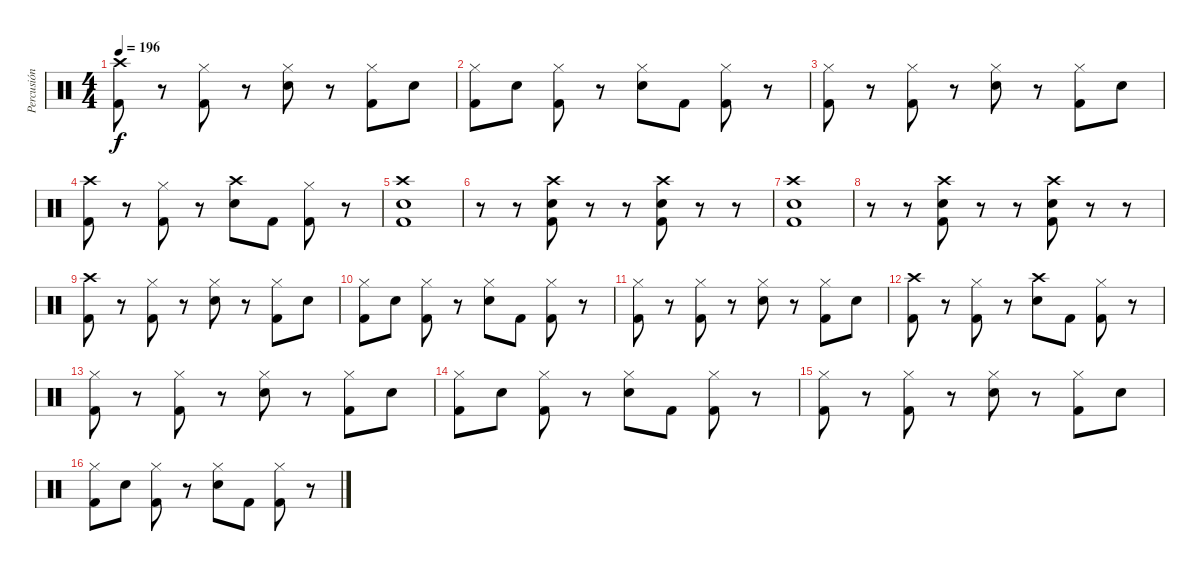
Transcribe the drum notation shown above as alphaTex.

\track ("Percusión" "Percusión") {instrument percussion}
\staff {score}
\articulation defaults
\ts (4 4)
\tempo 196
\clef neutral
\ks c
("Crash high (hit)" "Kick (hit) 2").8{dy f} r.8 ("Hi-Hat (closed)" "Kick (hit) 2").8 r.8 ("Hi-Hat (closed)" "Snare (hit) 2").8 r.8 ("Hi-Hat (closed)" "Kick (hit) 2").8 "Snare (hit) 2".8 |
("Hi-Hat (closed)" "Kick (hit) 2").8 "Snare (hit) 2".8 ("Hi-Hat (closed)" "Kick (hit) 2").8 r.8 ("Hi-Hat (closed)" "Snare (hit) 2").8 "Kick (hit) 2".8 ("Hi-Hat (closed)" "Kick (hit) 2").8 r.8 |
("Hi-Hat (closed)" "Kick (hit) 2").8 r.8 ("Hi-Hat (closed)" "Kick (hit) 2").8 r.8 ("Hi-Hat (closed)" "Snare (hit) 2").8 r.8 ("Hi-Hat (closed)" "Kick (hit) 2").8 "Snare (hit) 2".8 |
("Crash high (hit)" "Kick (hit) 2").8 r.8 ("Hi-Hat (closed)" "Kick (hit) 2").8 r.8 ("Crash high (hit)" "Snare (hit) 2").8 "Kick (hit) 2".8 ("Hi-Hat (closed)" "Kick (hit) 2").8 r.8 |
("Crash high (hit)" "Snare (hit) 2" "Kick (hit) 2").1 |
r.8 r.8 ("Crash high (hit)" "Snare (hit) 2" "Kick (hit) 2").8 r.8 r.8 ("Crash high (hit)" "Snare (hit) 2" "Kick (hit) 2").8 r.8 r.8 |
("Crash high (hit)" "Snare (hit) 2" "Kick (hit) 2").1 |
r.8 r.8 ("Crash high (hit)" "Snare (hit) 2" "Kick (hit) 2").8 r.8 r.8 ("Crash high (hit)" "Snare (hit) 2" "Kick (hit) 2").8 r.8 r.8 |
("Crash high (hit)" "Kick (hit) 2").8 r.8 ("Hi-Hat (closed)" "Kick (hit) 2").8 r.8 ("Hi-Hat (closed)" "Snare (hit) 2").8 r.8 ("Hi-Hat (closed)" "Kick (hit) 2").8 "Snare (hit) 2".8 |
("Hi-Hat (closed)" "Kick (hit) 2").8 "Snare (hit) 2".8 ("Hi-Hat (closed)" "Kick (hit) 2").8 r.8 ("Hi-Hat (closed)" "Snare (hit) 2").8 "Kick (hit) 2".8 ("Hi-Hat (closed)" "Kick (hit) 2").8 r.8 |
("Hi-Hat (closed)" "Kick (hit) 2").8 r.8 ("Hi-Hat (closed)" "Kick (hit) 2").8 r.8 ("Hi-Hat (closed)" "Snare (hit) 2").8 r.8 ("Hi-Hat (closed)" "Kick (hit) 2").8 "Snare (hit) 2".8 |
("Crash high (hit)" "Kick (hit) 2").8 r.8 ("Hi-Hat (closed)" "Kick (hit) 2").8 r.8 ("Crash high (hit)" "Snare (hit) 2").8 "Kick (hit) 2".8 ("Hi-Hat (closed)" "Kick (hit) 2").8 r.8 |
("Hi-Hat (closed)" "Kick (hit) 2").8 r.8 ("Hi-Hat (closed)" "Kick (hit) 2").8 r.8 ("Hi-Hat (closed)" "Snare (hit) 2").8 r.8 ("Hi-Hat (closed)" "Kick (hit) 2").8 "Snare (hit) 2".8 |
("Hi-Hat (closed)" "Kick (hit) 2").8 "Snare (hit) 2".8 ("Hi-Hat (closed)" "Kick (hit) 2").8 r.8 ("Hi-Hat (closed)" "Snare (hit) 2").8 "Kick (hit) 2".8 ("Hi-Hat (closed)" "Kick (hit) 2").8 r.8 |
("Hi-Hat (closed)" "Kick (hit) 2").8 r.8 ("Hi-Hat (closed)" "Kick (hit) 2").8 r.8 ("Hi-Hat (closed)" "Snare (hit) 2").8 r.8 ("Hi-Hat (closed)" "Kick (hit) 2").8 "Snare (hit) 2".8 |
("Hi-Hat (closed)" "Kick (hit) 2").8 "Snare (hit) 2".8 ("Hi-Hat (closed)" "Kick (hit) 2").8 r.8 ("Hi-Hat (closed)" "Snare (hit) 2").8 "Kick (hit) 2".8 ("Hi-Hat (closed)" "Kick (hit) 2").8 r.8
